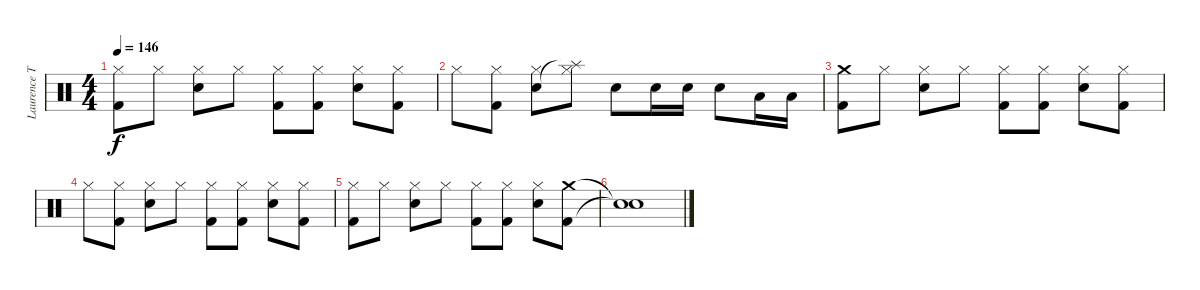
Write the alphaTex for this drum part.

\track ("Laurence Tolhurst drums" "Laurence T") {instrument percussion}
\staff {score}
\articulation defaults
\ts (4 4)
\tempo 146
\clef neutral
\ks c
("Hi-Hat (closed)" "Kick (hit) 2").8{dy f} "Hi-Hat (closed)".8 ("Hi-Hat (closed)" "Snare (hit) 2").8 "Hi-Hat (closed)".8 ("Hi-Hat (closed)" "Kick (hit) 2").8 ("Hi-Hat (closed)" "Kick (hit) 2").8 ("Hi-Hat (closed)" "Snare (hit) 2").8 ("Hi-Hat (closed)" "Kick (hit) 2").8 |
"Hi-Hat (closed)".8 ("Hi-Hat (closed)" "Kick (hit) 2").8 ("Hi-Hat (closed)" "Snare (hit) 2").8 ("Hi-Hat (closed)" "Splash (hit)"{t}).8 "Snare (hit) 2".8 "Snare (hit) 2".16 "Snare (hit) 2".16 "Snare (hit) 2".8 "Low Tom (hit)".16 "Low Floor Tom (hit)".16 |
("Crash medium (hit)" "Kick (hit) 2").8 "Hi-Hat (closed)".8 ("Hi-Hat (closed)" "Snare (hit) 2").8 "Hi-Hat (closed)".8 ("Hi-Hat (closed)" "Kick (hit) 2").8 ("Hi-Hat (closed)" "Kick (hit) 2").8 ("Hi-Hat (closed)" "Snare (hit) 2").8 ("Hi-Hat (closed)" "Kick (hit) 2").8 |
"Hi-Hat (closed)".8 ("Hi-Hat (closed)" "Kick (hit) 2").8 ("Hi-Hat (closed)" "Snare (hit) 2").8 "Hi-Hat (closed)".8 ("Hi-Hat (closed)" "Kick (hit) 2").8 ("Hi-Hat (closed)" "Kick (hit) 2").8 ("Hi-Hat (closed)" "Snare (hit) 2").8 ("Hi-Hat (closed)" "Kick (hit) 2").8 |
("Hi-Hat (closed)" "Kick (hit) 2").8 "Hi-Hat (closed)".8 ("Hi-Hat (closed)" "Snare (hit) 2").8 "Hi-Hat (closed)".8 ("Hi-Hat (closed)" "Kick (hit) 2").8 ("Hi-Hat (closed)" "Kick (hit) 2").8 ("Hi-Hat (closed)" "Snare (hit) 2").8 ("Crash medium (hit)" "Kick (hit) 2").8 |
("Snare (hit)"{t} "Snare (hit)"{t}).1
